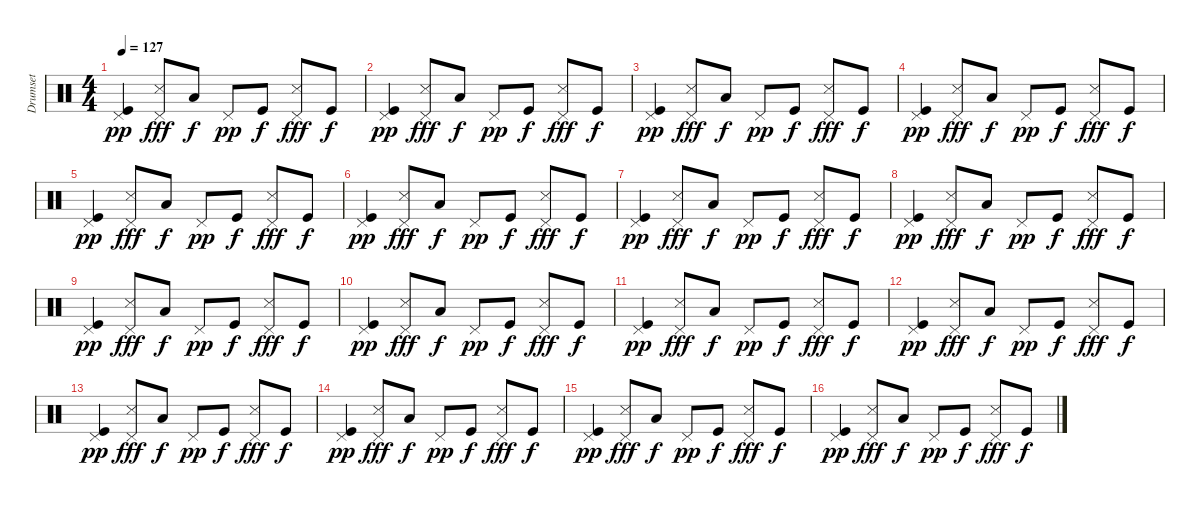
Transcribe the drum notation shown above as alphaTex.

\track ("Drumset" "Drumset") {instrument percussion}
\staff {score}
\articulation defaults
\ts (4 4)
\tempo 127
\clef neutral
\ks c
("Pedal Hi-Hat (hit)" "Kick (hit)").4{dy pp} ("Pedal Hi-Hat (hit)" "Snare (side stick) 3").8{dy fff} "Low Tom (hit)".8{dy f} "Pedal Hi-Hat (hit)".8{dy pp} "Kick (hit)".8{dy f} ("Pedal Hi-Hat (hit)" "Snare (side stick) 3").8{dy fff} "Kick (hit)".8{dy f} |
("Pedal Hi-Hat (hit)" "Kick (hit)").4{dy pp} ("Pedal Hi-Hat (hit)" "Snare (side stick) 3").8{dy fff} "Low Tom (hit)".8{dy f} "Pedal Hi-Hat (hit)".8{dy pp} "Kick (hit)".8{dy f} ("Pedal Hi-Hat (hit)" "Snare (side stick) 3").8{dy fff} "Kick (hit)".8{dy f} |
("Pedal Hi-Hat (hit)" "Kick (hit)").4{dy pp} ("Pedal Hi-Hat (hit)" "Snare (side stick) 3").8{dy fff} "Low Tom (hit)".8{dy f} "Pedal Hi-Hat (hit)".8{dy pp} "Kick (hit)".8{dy f} ("Pedal Hi-Hat (hit)" "Snare (side stick) 3").8{dy fff} "Kick (hit)".8{dy f} |
("Pedal Hi-Hat (hit)" "Kick (hit)").4{dy pp} ("Pedal Hi-Hat (hit)" "Snare (side stick) 3").8{dy fff} "Low Tom (hit)".8{dy f} "Pedal Hi-Hat (hit)".8{dy pp} "Kick (hit)".8{dy f} ("Pedal Hi-Hat (hit)" "Snare (side stick) 3").8{dy fff} "Kick (hit)".8{dy f} |
("Pedal Hi-Hat (hit)" "Kick (hit)").4{dy pp} ("Pedal Hi-Hat (hit)" "Snare (side stick) 3").8{dy fff} "Low Tom (hit)".8{dy f} "Pedal Hi-Hat (hit)".8{dy pp} "Kick (hit)".8{dy f} ("Pedal Hi-Hat (hit)" "Snare (side stick) 3").8{dy fff} "Kick (hit)".8{dy f} |
("Pedal Hi-Hat (hit)" "Kick (hit)").4{dy pp} ("Pedal Hi-Hat (hit)" "Snare (side stick) 3").8{dy fff} "Low Tom (hit)".8{dy f} "Pedal Hi-Hat (hit)".8{dy pp} "Kick (hit)".8{dy f} ("Pedal Hi-Hat (hit)" "Snare (side stick) 3").8{dy fff} "Kick (hit)".8{dy f} |
("Pedal Hi-Hat (hit)" "Kick (hit)").4{dy pp} ("Pedal Hi-Hat (hit)" "Snare (side stick) 3").8{dy fff} "Low Tom (hit)".8{dy f} "Pedal Hi-Hat (hit)".8{dy pp} "Kick (hit)".8{dy f} ("Pedal Hi-Hat (hit)" "Snare (side stick) 3").8{dy fff} "Kick (hit)".8{dy f} |
("Pedal Hi-Hat (hit)" "Kick (hit)").4{dy pp} ("Pedal Hi-Hat (hit)" "Snare (side stick) 3").8{dy fff} "Low Tom (hit)".8{dy f} "Pedal Hi-Hat (hit)".8{dy pp} "Kick (hit)".8{dy f} ("Pedal Hi-Hat (hit)" "Snare (side stick) 3").8{dy fff} "Kick (hit)".8{dy f} |
("Pedal Hi-Hat (hit)" "Kick (hit)").4{dy pp} ("Pedal Hi-Hat (hit)" "Snare (side stick) 3").8{dy fff} "Low Tom (hit)".8{dy f} "Pedal Hi-Hat (hit)".8{dy pp} "Kick (hit)".8{dy f} ("Pedal Hi-Hat (hit)" "Snare (side stick) 3").8{dy fff} "Kick (hit)".8{dy f} |
("Pedal Hi-Hat (hit)" "Kick (hit)").4{dy pp} ("Pedal Hi-Hat (hit)" "Snare (side stick) 3").8{dy fff} "Low Tom (hit)".8{dy f} "Pedal Hi-Hat (hit)".8{dy pp} "Kick (hit)".8{dy f} ("Pedal Hi-Hat (hit)" "Snare (side stick) 3").8{dy fff} "Kick (hit)".8{dy f} |
("Pedal Hi-Hat (hit)" "Kick (hit)").4{dy pp} ("Pedal Hi-Hat (hit)" "Snare (side stick) 3").8{dy fff} "Low Tom (hit)".8{dy f} "Pedal Hi-Hat (hit)".8{dy pp} "Kick (hit)".8{dy f} ("Pedal Hi-Hat (hit)" "Snare (side stick) 3").8{dy fff} "Kick (hit)".8{dy f} |
("Pedal Hi-Hat (hit)" "Kick (hit)").4{dy pp} ("Pedal Hi-Hat (hit)" "Snare (side stick) 3").8{dy fff} "Low Tom (hit)".8{dy f} "Pedal Hi-Hat (hit)".8{dy pp} "Kick (hit)".8{dy f} ("Pedal Hi-Hat (hit)" "Snare (side stick) 3").8{dy fff} "Kick (hit)".8{dy f} |
("Pedal Hi-Hat (hit)" "Kick (hit)").4{dy pp} ("Pedal Hi-Hat (hit)" "Snare (side stick) 3").8{dy fff} "Low Tom (hit)".8{dy f} "Pedal Hi-Hat (hit)".8{dy pp} "Kick (hit)".8{dy f} ("Pedal Hi-Hat (hit)" "Snare (side stick) 3").8{dy fff} "Kick (hit)".8{dy f} |
("Pedal Hi-Hat (hit)" "Kick (hit)").4{dy pp} ("Pedal Hi-Hat (hit)" "Snare (side stick) 3").8{dy fff} "Low Tom (hit)".8{dy f} "Pedal Hi-Hat (hit)".8{dy pp} "Kick (hit)".8{dy f} ("Pedal Hi-Hat (hit)" "Snare (side stick) 3").8{dy fff} "Kick (hit)".8{dy f} |
("Pedal Hi-Hat (hit)" "Kick (hit)").4{dy pp} ("Pedal Hi-Hat (hit)" "Snare (side stick) 3").8{dy fff} "Low Tom (hit)".8{dy f} "Pedal Hi-Hat (hit)".8{dy pp} "Kick (hit)".8{dy f} ("Pedal Hi-Hat (hit)" "Snare (side stick) 3").8{dy fff} "Kick (hit)".8{dy f} |
("Pedal Hi-Hat (hit)" "Kick (hit)").4{dy pp} ("Pedal Hi-Hat (hit)" "Snare (side stick) 3").8{dy fff} "Low Tom (hit)".8{dy f} "Pedal Hi-Hat (hit)".8{dy pp} "Kick (hit)".8{dy f} ("Pedal Hi-Hat (hit)" "Snare (side stick) 3").8{dy fff} "Kick (hit)".8{dy f}
